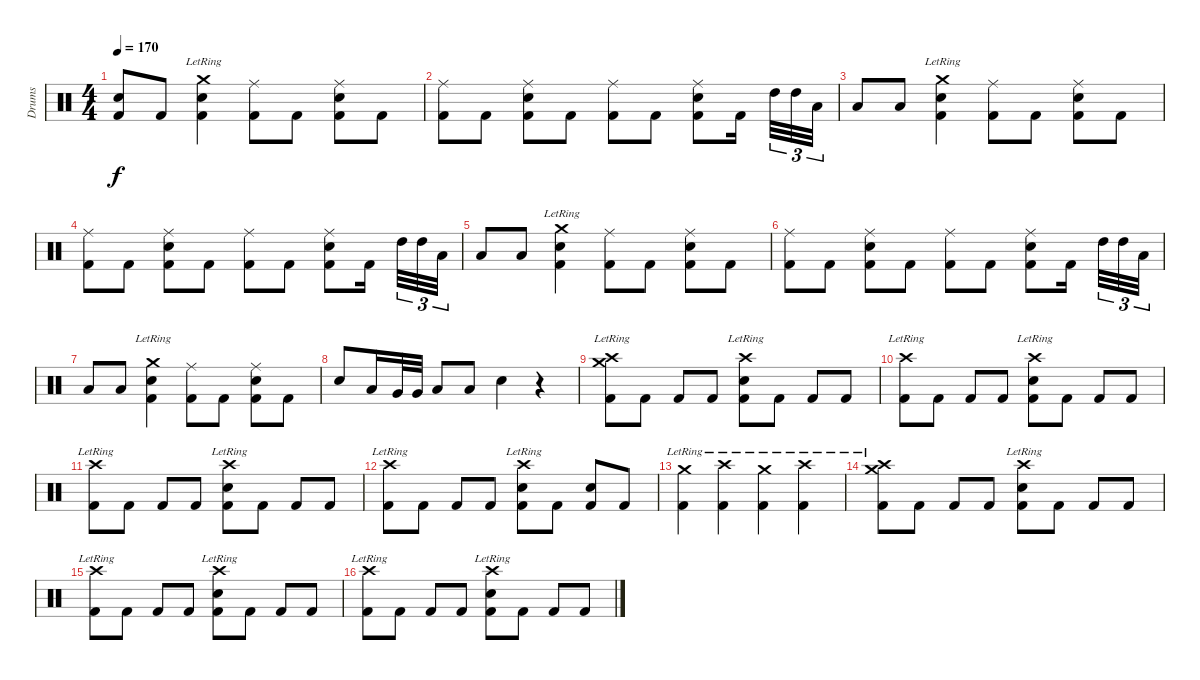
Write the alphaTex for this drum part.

\track ("Drums" "Drums") {instrument percussion}
\staff {score}
\articulation defaults
\ts (4 4)
\tempo 170
\clef neutral
\ks c
("Electric Snare (hit)" "Kick (hit) 2").8{dy f} "Kick (hit) 2".8 ("Crash medium (hit)"{lr} "Electric Snare (hit)" "Kick (hit) 2").4 ("Ride (middle)" "Kick (hit) 2").8 "Kick (hit) 2".8 ("Ride (middle)" "Electric Snare (hit)" "Kick (hit) 2").8 "Kick (hit) 2".8 |
("Ride (middle)" "Kick (hit) 2").8 "Kick (hit) 2".8 ("Ride (middle)" "Electric Snare (hit)" "Kick (hit) 2").8 "Kick (hit) 2".8 ("Ride (middle)" "Kick (hit) 2").8 "Kick (hit) 2".8 ("Ride (middle)" "Electric Snare (hit)" "Kick (hit) 2").8 "Kick (hit) 2".16 "High Tom (hit)".32{tu (3 2)} "High Tom (hit)".32{tu (3 2)} "Low Tom (hit)".32{tu (3 2)} |
"Low Tom (hit)".8 "Low Floor Tom (hit)".8 ("Crash medium (hit)"{lr} "Electric Snare (hit)" "Kick (hit) 2").4 ("Ride (middle)" "Kick (hit) 2").8 "Kick (hit) 2".8 ("Ride (middle)" "Electric Snare (hit)" "Kick (hit) 2").8 "Kick (hit) 2".8 |
("Ride (middle)" "Kick (hit) 2").8 "Kick (hit) 2".8 ("Ride (middle)" "Electric Snare (hit)" "Kick (hit) 2").8 "Kick (hit) 2".8 ("Ride (middle)" "Kick (hit) 2").8 "Kick (hit) 2".8 ("Ride (middle)" "Electric Snare (hit)" "Kick (hit) 2").8 "Kick (hit) 2".16 "High Tom (hit)".32{tu (3 2)} "High Tom (hit)".32{tu (3 2)} "Low Tom (hit)".32{tu (3 2)} |
"Low Tom (hit)".8 "Low Floor Tom (hit)".8 ("Crash medium (hit)"{lr} "Electric Snare (hit)" "Kick (hit) 2").4 ("Ride (middle)" "Kick (hit) 2").8 "Kick (hit) 2".8 ("Ride (middle)" "Electric Snare (hit)" "Kick (hit) 2").8 "Kick (hit) 2".8 |
("Ride (middle)" "Kick (hit) 2").8 "Kick (hit) 2".8 ("Ride (middle)" "Electric Snare (hit)" "Kick (hit) 2").8 "Kick (hit) 2".8 ("Ride (middle)" "Kick (hit) 2").8 "Kick (hit) 2".8 ("Ride (middle)" "Electric Snare (hit)" "Kick (hit) 2").8 "Kick (hit) 2".16 "High Tom (hit)".32{tu (3 2)} "High Tom (hit)".32{tu (3 2)} "Low Tom (hit)".32{tu (3 2)} |
"Low Tom (hit)".8 "Low Floor Tom (hit)".8 ("Crash medium (hit)"{lr} "Electric Snare (hit)" "Kick (hit) 2").4 ("Ride (middle)" "Kick (hit) 2").8 "Kick (hit) 2".8 ("Ride (middle)" "Electric Snare (hit)" "Kick (hit) 2").8 "Kick (hit) 2".8 |
"Electric Snare (hit)".8 "Low Floor Tom (hit)".16 "Very Low Tom (hit)".32 "Very Low Tom (hit)".32 "Low Tom (hit)".8 "Low Tom (hit)".8 "Electric Snare (hit)".4 r.4 |
("Crash medium (hit)"{lr} "Crash high (hit)"{lr} "Kick (hit) 2").8 "Kick (hit) 2".8 "Kick (hit) 2".8 "Kick (hit) 2".8 ("Crash high (hit)"{lr} "Electric Snare (hit)" "Kick (hit) 2").8 "Kick (hit) 2".8 "Kick (hit) 2".8 "Kick (hit) 2".8 |
("Crash high (hit)"{lr} "Kick (hit) 2").8 "Kick (hit) 2".8 "Kick (hit) 2".8 "Kick (hit) 2".8 ("Crash high (hit)"{lr} "Electric Snare (hit)" "Kick (hit) 2").8 "Kick (hit) 2".8 "Kick (hit) 2".8 "Kick (hit) 2".8 |
("Crash high (hit)"{lr} "Kick (hit) 2").8 "Kick (hit) 2".8 "Kick (hit) 2".8 "Kick (hit) 2".8 ("Crash high (hit)"{lr} "Electric Snare (hit)" "Kick (hit) 2").8 "Kick (hit) 2".8 "Kick (hit) 2".8 "Kick (hit) 2".8 |
("Crash high (hit)"{lr} "Kick (hit) 2").8 "Kick (hit) 2".8 "Kick (hit) 2".8 "Kick (hit) 2".8 ("Crash high (hit)"{lr} "Electric Snare (hit)" "Kick (hit) 2").8 "Kick (hit) 2".8 ("Electric Snare (hit)" "Kick (hit) 2").8 "Kick (hit) 2".8 |
("Crash medium (hit)"{lr} "Kick (hit) 2").4 ("Crash high (hit)"{lr} "Kick (hit) 2").4 ("Crash medium (hit)"{lr} "Kick (hit) 2").4 ("Crash high (hit)"{lr} "Kick (hit) 2").4 |
("Crash medium (hit)"{lr} "Crash high (hit)"{lr} "Kick (hit) 2").8 "Kick (hit) 2".8 "Kick (hit) 2".8 "Kick (hit) 2".8 ("Crash high (hit)"{lr} "Electric Snare (hit)" "Kick (hit) 2").8 "Kick (hit) 2".8 "Kick (hit) 2".8 "Kick (hit) 2".8 |
("Crash high (hit)"{lr} "Kick (hit) 2").8 "Kick (hit) 2".8 "Kick (hit) 2".8 "Kick (hit) 2".8 ("Crash high (hit)"{lr} "Electric Snare (hit)" "Kick (hit) 2").8 "Kick (hit) 2".8 "Kick (hit) 2".8 "Kick (hit) 2".8 |
("Crash high (hit)"{lr} "Kick (hit) 2").8 "Kick (hit) 2".8 "Kick (hit) 2".8 "Kick (hit) 2".8 ("Crash high (hit)"{lr} "Electric Snare (hit)" "Kick (hit) 2").8 "Kick (hit) 2".8 "Kick (hit) 2".8 "Kick (hit) 2".8
